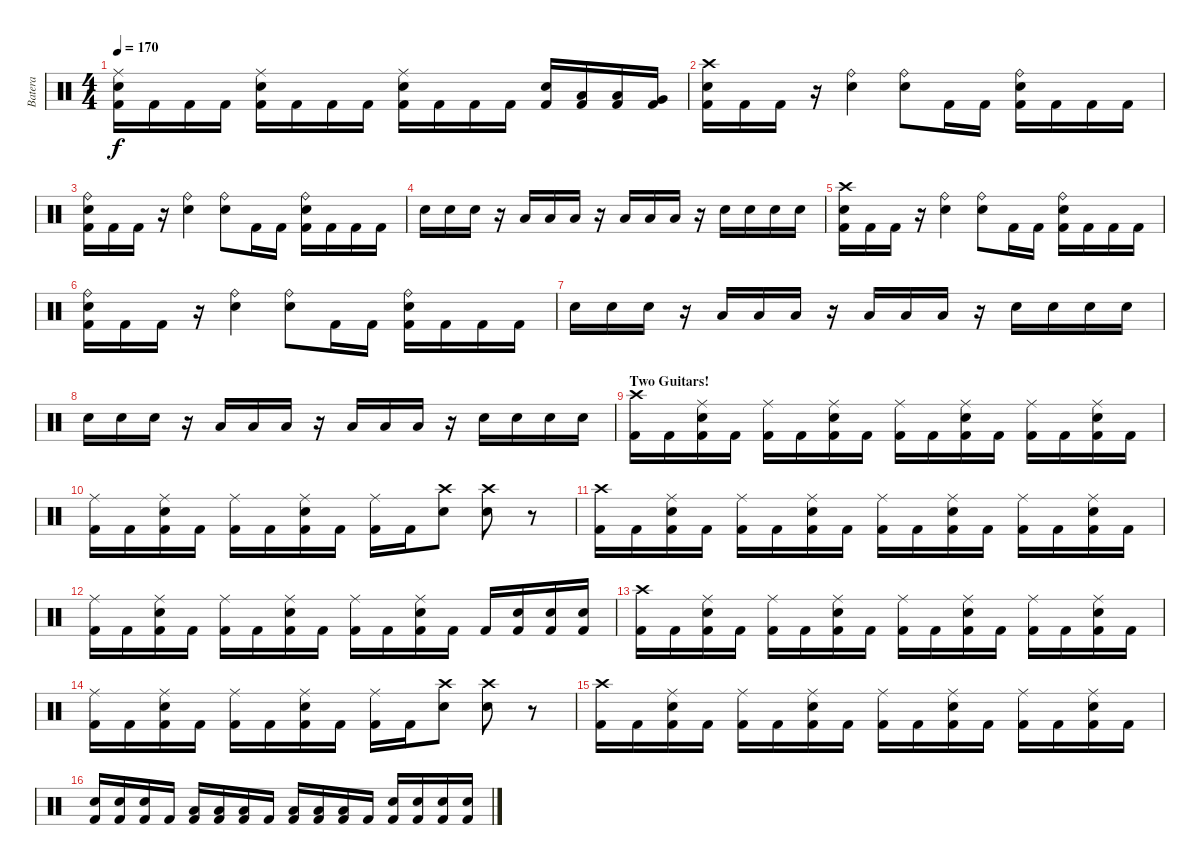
\track ("Batera" "Batera") {instrument percussion}
\staff {score}
\articulation defaults
\ts (4 4)
\tempo 170
\clef neutral
\ks c
("Ride (middle)" "Electric Snare (hit)" "Kick (hit) 2").16{dy f} "Kick (hit) 2".16 "Kick (hit) 2".16 "Kick (hit) 2".16 ("Ride (middle)" "Electric Snare (hit)" "Kick (hit) 2").16 "Kick (hit) 2".16 "Kick (hit) 2".16 "Kick (hit) 2".16 ("Ride (middle)" "Electric Snare (hit)" "Kick (hit) 2").16 "Kick (hit) 2".16 "Kick (hit) 2".16 "Kick (hit) 2".16 ("Electric Snare (hit)" "Kick (hit) 2").16 ("Low Floor Tom (hit)" "Kick (hit) 2").16 ("Low Tom (hit)" "Kick (hit) 2").16 ("Very Low Tom (hit)" "Kick (hit) 2").16 |
("Crash high (hit)" "Electric Snare (hit)" "Kick (hit) 2").16 "Kick (hit) 2".16 "Kick (hit) 2".16 r.16 ("Ride (bell)" "Electric Snare (hit)").4 ("Ride (bell)" "Electric Snare (hit)").8 "Kick (hit) 2".16 "Kick (hit) 2".16 ("Ride (bell)" "Electric Snare (hit)" "Kick (hit) 2").16 "Kick (hit) 2".16 "Kick (hit) 2".16 "Kick (hit) 2".16 |
("Ride (bell)" "Electric Snare (hit)" "Kick (hit) 2").16 "Kick (hit) 2".16 "Kick (hit) 2".16 r.16 ("Ride (bell)" "Electric Snare (hit)").4 ("Ride (bell)" "Electric Snare (hit)").8 "Kick (hit) 2".16 "Kick (hit) 2".16 ("Ride (bell)" "Electric Snare (hit)" "Kick (hit) 2").16 "Kick (hit) 2".16 "Kick (hit) 2".16 "Kick (hit) 2".16 |
"Electric Snare (hit)".16 "Electric Snare (hit)".16 "Electric Snare (hit)".16 r.16 "Low Floor Tom (hit)".16 "Low Floor Tom (hit)".16 "Low Floor Tom (hit)".16 r.16 "Low Tom (hit)".16 "Low Tom (hit)".16 "Low Tom (hit)".16 r.16 "Electric Snare (hit)".16 "Electric Snare (hit)".16 "Electric Snare (hit)".16 "Electric Snare (hit)".16 |
("Crash high (hit)" "Electric Snare (hit)" "Kick (hit) 2").16 "Kick (hit) 2".16 "Kick (hit) 2".16 r.16 ("Ride (bell)" "Electric Snare (hit)").4 ("Ride (bell)" "Electric Snare (hit)").8 "Kick (hit) 2".16 "Kick (hit) 2".16 ("Ride (bell)" "Electric Snare (hit)" "Kick (hit) 2").16 "Kick (hit) 2".16 "Kick (hit) 2".16 "Kick (hit) 2".16 |
("Ride (bell)" "Electric Snare (hit)" "Kick (hit) 2").16 "Kick (hit) 2".16 "Kick (hit) 2".16 r.16 ("Ride (bell)" "Electric Snare (hit)").4 ("Ride (bell)" "Electric Snare (hit)").8 "Kick (hit) 2".16 "Kick (hit) 2".16 ("Ride (bell)" "Electric Snare (hit)" "Kick (hit) 2").16 "Kick (hit) 2".16 "Kick (hit) 2".16 "Kick (hit) 2".16 |
"Electric Snare (hit)".16 "Electric Snare (hit)".16 "Electric Snare (hit)".16 r.16 "Low Floor Tom (hit)".16 "Low Floor Tom (hit)".16 "Low Floor Tom (hit)".16 r.16 "Low Tom (hit)".16 "Low Tom (hit)".16 "Low Tom (hit)".16 r.16 "Electric Snare (hit)".16 "Electric Snare (hit)".16 "Electric Snare (hit)".16 "Electric Snare (hit)".16 |
"Electric Snare (hit)".16 "Electric Snare (hit)".16 "Electric Snare (hit)".16 r.16 "Low Floor Tom (hit)".16 "Low Floor Tom (hit)".16 "Low Floor Tom (hit)".16 r.16 "Low Tom (hit)".16 "Low Tom (hit)".16 "Low Tom (hit)".16 r.16 "Electric Snare (hit)".16 "Electric Snare (hit)".16 "Electric Snare (hit)".16 "Electric Snare (hit)".16 |
\section ("" "Two Guitars!")
("Crash high (hit)" "Kick (hit) 2").16 "Kick (hit) 2".16 ("Ride (middle)" "Electric Snare (hit)" "Kick (hit) 2").16 "Kick (hit) 2".16 ("Ride (middle)" "Kick (hit) 2").16 "Kick (hit) 2".16 ("Ride (middle)" "Electric Snare (hit)" "Kick (hit) 2").16 "Kick (hit) 2".16 ("Ride (middle)" "Kick (hit) 2").16 "Kick (hit) 2".16 ("Ride (middle)" "Electric Snare (hit)" "Kick (hit) 2").16 "Kick (hit) 2".16 ("Ride (middle)" "Kick (hit) 2").16 "Kick (hit) 2".16 ("Ride (middle)" "Electric Snare (hit)" "Kick (hit) 2").16 "Kick (hit) 2".16 |
("Ride (middle)" "Kick (hit) 2").16 "Kick (hit) 2".16 ("Ride (middle)" "Electric Snare (hit)" "Kick (hit) 2").16 "Kick (hit) 2".16 ("Ride (middle)" "Kick (hit) 2").16 "Kick (hit) 2".16 ("Ride (middle)" "Electric Snare (hit)" "Kick (hit) 2").16 "Kick (hit) 2".16 ("Ride (middle)" "Kick (hit) 2").16 "Kick (hit) 2".16 ("Crash high (hit)" "Electric Snare (hit)").8 ("Crash high (hit)" "Electric Snare (hit)").8 r.8 |
("Crash high (hit)" "Kick (hit) 2").16 "Kick (hit) 2".16 ("Ride (middle)" "Electric Snare (hit)" "Kick (hit) 2").16 "Kick (hit) 2".16 ("Ride (middle)" "Kick (hit) 2").16 "Kick (hit) 2".16 ("Ride (middle)" "Electric Snare (hit)" "Kick (hit) 2").16 "Kick (hit) 2".16 ("Ride (middle)" "Kick (hit) 2").16 "Kick (hit) 2".16 ("Ride (middle)" "Electric Snare (hit)" "Kick (hit) 2").16 "Kick (hit) 2".16 ("Ride (middle)" "Kick (hit) 2").16 "Kick (hit) 2".16 ("Ride (middle)" "Electric Snare (hit)" "Kick (hit) 2").16 "Kick (hit) 2".16 |
("Ride (middle)" "Kick (hit) 2").16 "Kick (hit) 2".16 ("Ride (middle)" "Electric Snare (hit)" "Kick (hit) 2").16 "Kick (hit) 2".16 ("Ride (middle)" "Kick (hit) 2").16 "Kick (hit) 2".16 ("Ride (middle)" "Electric Snare (hit)" "Kick (hit) 2").16 "Kick (hit) 2".16 ("Ride (middle)" "Kick (hit) 2").16 "Kick (hit) 2".16 ("Ride (middle)" "Electric Snare (hit)" "Kick (hit) 2").16 "Kick (hit) 2".16 "Kick (hit) 2".16 ("Electric Snare (hit)" "Kick (hit) 2").16 ("Electric Snare (hit)" "Kick (hit) 2").16 ("Electric Snare (hit)" "Kick (hit) 2").16 |
("Crash high (hit)" "Kick (hit) 2").16 "Kick (hit) 2".16 ("Ride (middle)" "Electric Snare (hit)" "Kick (hit) 2").16 "Kick (hit) 2".16 ("Ride (middle)" "Kick (hit) 2").16 "Kick (hit) 2".16 ("Ride (middle)" "Electric Snare (hit)" "Kick (hit) 2").16 "Kick (hit) 2".16 ("Ride (middle)" "Kick (hit) 2").16 "Kick (hit) 2".16 ("Ride (middle)" "Electric Snare (hit)" "Kick (hit) 2").16 "Kick (hit) 2".16 ("Ride (middle)" "Kick (hit) 2").16 "Kick (hit) 2".16 ("Ride (middle)" "Electric Snare (hit)" "Kick (hit) 2").16 "Kick (hit) 2".16 |
("Ride (middle)" "Kick (hit) 2").16 "Kick (hit) 2".16 ("Ride (middle)" "Electric Snare (hit)" "Kick (hit) 2").16 "Kick (hit) 2".16 ("Ride (middle)" "Kick (hit) 2").16 "Kick (hit) 2".16 ("Ride (middle)" "Electric Snare (hit)" "Kick (hit) 2").16 "Kick (hit) 2".16 ("Ride (middle)" "Kick (hit) 2").16 "Kick (hit) 2".16 ("Crash high (hit)" "Electric Snare (hit)").8 ("Crash high (hit)" "Electric Snare (hit)").8 r.8 |
("Crash high (hit)" "Kick (hit) 2").16 "Kick (hit) 2".16 ("Ride (middle)" "Electric Snare (hit)" "Kick (hit) 2").16 "Kick (hit) 2".16 ("Ride (middle)" "Kick (hit) 2").16 "Kick (hit) 2".16 ("Ride (middle)" "Electric Snare (hit)" "Kick (hit) 2").16 "Kick (hit) 2".16 ("Ride (middle)" "Kick (hit) 2").16 "Kick (hit) 2".16 ("Ride (middle)" "Electric Snare (hit)" "Kick (hit) 2").16 "Kick (hit) 2".16 ("Ride (middle)" "Kick (hit) 2").16 "Kick (hit) 2".16 ("Ride (middle)" "Electric Snare (hit)" "Kick (hit) 2").16 "Kick (hit) 2".16 |
("Electric Snare (hit)" "Kick (hit) 2").16 ("Electric Snare (hit)" "Kick (hit) 2").16 ("Electric Snare (hit)" "Kick (hit) 2").16 "Kick (hit) 2".16 ("Low Floor Tom (hit)" "Kick (hit) 2").16 ("Low Floor Tom (hit)" "Kick (hit) 2").16 ("Low Floor Tom (hit)" "Kick (hit) 2").16 "Kick (hit) 2".16 ("Low Tom (hit)" "Kick (hit) 2").16 ("Low Tom (hit)" "Kick (hit) 2").16 ("Low Tom (hit)" "Kick (hit) 2").16 "Kick (hit) 2".16 ("Electric Snare (hit)" "Kick (hit) 2").16 ("Electric Snare (hit)" "Kick (hit) 2").16 ("Electric Snare (hit)" "Kick (hit) 2").16 ("Electric Snare (hit)" "Kick (hit) 2").16
